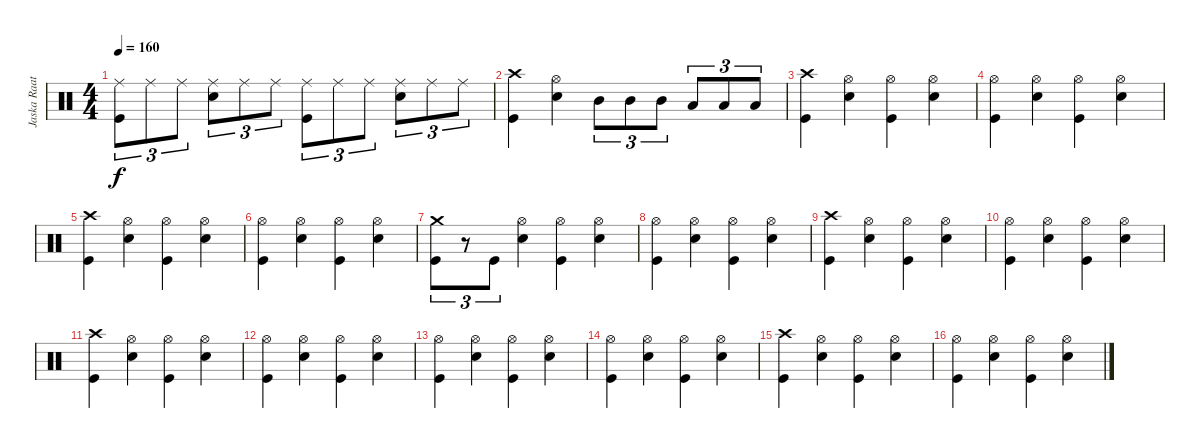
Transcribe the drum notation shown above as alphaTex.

\track ("Jaska Raatikainen" "Jaska Raat") {instrument percussion}
\staff {score}
\articulation defaults
\ts (4 4)
\tempo 160
\clef neutral
\ks c
("Ride (middle)" "Kick (hit)").8{tu (3 2) dy f} "Ride (middle)".8{tu (3 2)} "Ride (middle)".8{tu (3 2)} ("Ride (middle)" "Electric Snare (hit)").8{tu (3 2)} "Ride (middle)".8{tu (3 2)} "Ride (middle)".8{tu (3 2)} ("Ride (middle)" "Kick (hit)").8{tu (3 2)} "Ride (middle)".8{tu (3 2)} "Ride (middle)".8{tu (3 2)} ("Ride (middle)" "Electric Snare (hit)").8{tu (3 2)} "Ride (middle)".8{tu (3 2)} "Ride (middle)".8{tu (3 2)} |
("Crash high (hit)" "Kick (hit)").4 ("Hi-Hat (open)" "Electric Snare (hit)").4 "Mid Tom (hit)".8{tu (3 2)} "Mid Tom (hit)".8{tu (3 2)} "Mid Tom (hit)".8{tu (3 2)} "Low Tom (hit)".8{tu (3 2)} "Low Tom (hit)".8{tu (3 2)} "Low Tom (hit)".8{tu (3 2)} |
("Crash high (hit)" "Kick (hit)").4 ("Hi-Hat (open)" "Electric Snare (hit)").4 ("Hi-Hat (open)" "Kick (hit)").4 ("Hi-Hat (open)" "Electric Snare (hit)").4 |
("Hi-Hat (open)" "Kick (hit)").4 ("Hi-Hat (open)" "Electric Snare (hit)").4 ("Hi-Hat (open)" "Kick (hit)").4 ("Hi-Hat (open)" "Electric Snare (hit)").4 |
("Crash high (hit)" "Kick (hit)").4 ("Hi-Hat (open)" "Electric Snare (hit)").4 ("Hi-Hat (open)" "Kick (hit)").4 ("Hi-Hat (open)" "Electric Snare (hit)").4 |
("Hi-Hat (open)" "Kick (hit)").4 ("Hi-Hat (open)" "Electric Snare (hit)").4 ("Hi-Hat (open)" "Kick (hit)").4 ("Hi-Hat (open)" "Electric Snare (hit)").4 |
("Crash medium (hit)" "Kick (hit)").8{tu (3 2)} r.8{tu (3 2)} "Kick (hit)".8{tu (3 2)} ("Hi-Hat (open)" "Electric Snare (hit)").4 ("Hi-Hat (open)" "Kick (hit)").4 ("Hi-Hat (open)" "Electric Snare (hit)").4 |
("Hi-Hat (open)" "Kick (hit)").4 ("Hi-Hat (open)" "Electric Snare (hit)").4 ("Hi-Hat (open)" "Kick (hit)").4 ("Hi-Hat (open)" "Electric Snare (hit)").4 |
("Crash high (hit)" "Kick (hit)").4 ("Hi-Hat (open)" "Electric Snare (hit)").4 ("Hi-Hat (open)" "Kick (hit)").4 ("Hi-Hat (open)" "Electric Snare (hit)").4 |
("Hi-Hat (open)" "Kick (hit)").4 ("Hi-Hat (open)" "Electric Snare (hit)").4 ("Hi-Hat (open)" "Kick (hit)").4 ("Hi-Hat (open)" "Electric Snare (hit)").4 |
("Crash high (hit)" "Kick (hit)").4 ("Hi-Hat (open)" "Electric Snare (hit)").4 ("Hi-Hat (open)" "Kick (hit)").4 ("Hi-Hat (open)" "Electric Snare (hit)").4 |
("Hi-Hat (open)" "Kick (hit)").4 ("Hi-Hat (open)" "Electric Snare (hit)").4 ("Hi-Hat (open)" "Kick (hit)").4 ("Hi-Hat (open)" "Electric Snare (hit)").4 |
("Hi-Hat (open)" "Kick (hit)").4 ("Hi-Hat (open)" "Electric Snare (hit)").4 ("Hi-Hat (open)" "Kick (hit)").4 ("Hi-Hat (open)" "Electric Snare (hit)").4 |
("Hi-Hat (open)" "Kick (hit)").4 ("Hi-Hat (open)" "Electric Snare (hit)").4 ("Hi-Hat (open)" "Kick (hit)").4 ("Hi-Hat (open)" "Electric Snare (hit)").4 |
("Crash high (hit)" "Kick (hit)").4 ("Hi-Hat (open)" "Electric Snare (hit)").4 ("Hi-Hat (open)" "Kick (hit)").4 ("Hi-Hat (open)" "Electric Snare (hit)").4 |
("Hi-Hat (open)" "Kick (hit)").4 ("Hi-Hat (open)" "Electric Snare (hit)").4 ("Hi-Hat (open)" "Kick (hit)").4 ("Hi-Hat (open)" "Electric Snare (hit)").4
